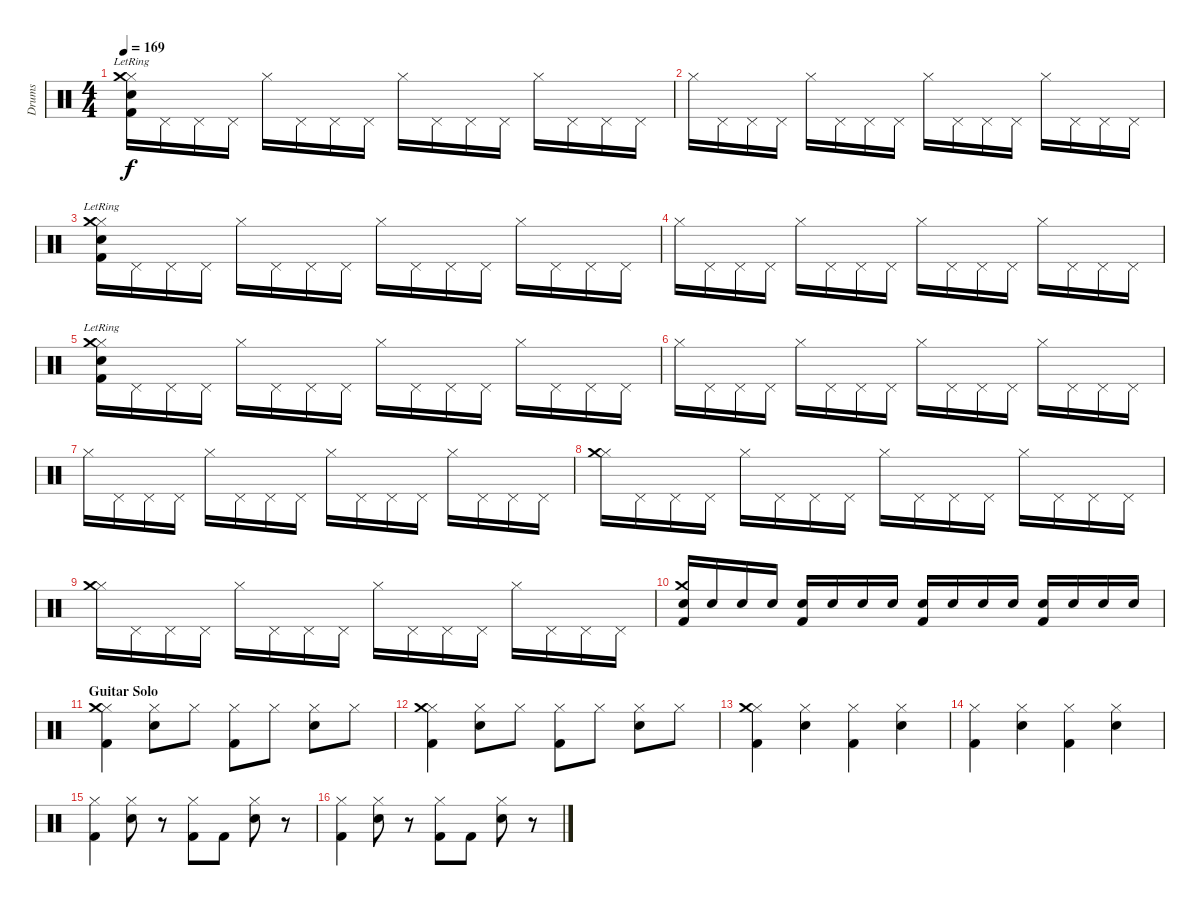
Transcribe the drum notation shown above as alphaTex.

\track ("Drums" "Drums") {instrument percussion}
\staff {score}
\articulation defaults
\ts (4 4)
\tempo 169
\clef neutral
\ks c
("Hi-Hat (closed)" "Kick (hit) 2"{lr} "Crash medium (hit)"{lr} "Snare (hit) 2"{lr}).16{dy f} "Pedal Hi-Hat (hit)".16 "Pedal Hi-Hat (hit)".16 "Pedal Hi-Hat (hit)".16 "Hi-Hat (closed)".16 "Pedal Hi-Hat (hit)".16 "Pedal Hi-Hat (hit)".16 "Pedal Hi-Hat (hit)".16 "Hi-Hat (closed)".16 "Pedal Hi-Hat (hit)".16 "Pedal Hi-Hat (hit)".16 "Pedal Hi-Hat (hit)".16 "Hi-Hat (closed)".16 "Pedal Hi-Hat (hit)".16 "Pedal Hi-Hat (hit)".16 "Pedal Hi-Hat (hit)".16 |
"Hi-Hat (closed)".16 "Pedal Hi-Hat (hit)".16 "Pedal Hi-Hat (hit)".16 "Pedal Hi-Hat (hit)".16 "Hi-Hat (closed)".16 "Pedal Hi-Hat (hit)".16 "Pedal Hi-Hat (hit)".16 "Pedal Hi-Hat (hit)".16 "Hi-Hat (closed)".16 "Pedal Hi-Hat (hit)".16 "Pedal Hi-Hat (hit)".16 "Pedal Hi-Hat (hit)".16 "Hi-Hat (closed)".16 "Pedal Hi-Hat (hit)".16 "Pedal Hi-Hat (hit)".16 "Pedal Hi-Hat (hit)".16 |
("Hi-Hat (closed)" "Kick (hit) 2"{lr} "Crash medium (hit)"{lr} "Snare (hit) 2"{lr}).16 "Pedal Hi-Hat (hit)".16 "Pedal Hi-Hat (hit)".16 "Pedal Hi-Hat (hit)".16 "Hi-Hat (closed)".16 "Pedal Hi-Hat (hit)".16 "Pedal Hi-Hat (hit)".16 "Pedal Hi-Hat (hit)".16 "Hi-Hat (closed)".16 "Pedal Hi-Hat (hit)".16 "Pedal Hi-Hat (hit)".16 "Pedal Hi-Hat (hit)".16 "Hi-Hat (closed)".16 "Pedal Hi-Hat (hit)".16 "Pedal Hi-Hat (hit)".16 "Pedal Hi-Hat (hit)".16 |
"Hi-Hat (closed)".16 "Pedal Hi-Hat (hit)".16 "Pedal Hi-Hat (hit)".16 "Pedal Hi-Hat (hit)".16 "Hi-Hat (closed)".16 "Pedal Hi-Hat (hit)".16 "Pedal Hi-Hat (hit)".16 "Pedal Hi-Hat (hit)".16 "Hi-Hat (closed)".16 "Pedal Hi-Hat (hit)".16 "Pedal Hi-Hat (hit)".16 "Pedal Hi-Hat (hit)".16 "Hi-Hat (closed)".16 "Pedal Hi-Hat (hit)".16 "Pedal Hi-Hat (hit)".16 "Pedal Hi-Hat (hit)".16 |
("Hi-Hat (closed)" "Kick (hit) 2"{lr} "Crash medium (hit)"{lr} "Snare (hit) 2"{lr}).16 "Pedal Hi-Hat (hit)".16 "Pedal Hi-Hat (hit)".16 "Pedal Hi-Hat (hit)".16 "Hi-Hat (closed)".16 "Pedal Hi-Hat (hit)".16 "Pedal Hi-Hat (hit)".16 "Pedal Hi-Hat (hit)".16 "Hi-Hat (closed)".16 "Pedal Hi-Hat (hit)".16 "Pedal Hi-Hat (hit)".16 "Pedal Hi-Hat (hit)".16 "Hi-Hat (closed)".16 "Pedal Hi-Hat (hit)".16 "Pedal Hi-Hat (hit)".16 "Pedal Hi-Hat (hit)".16 |
"Hi-Hat (closed)".16 "Pedal Hi-Hat (hit)".16 "Pedal Hi-Hat (hit)".16 "Pedal Hi-Hat (hit)".16 "Hi-Hat (closed)".16 "Pedal Hi-Hat (hit)".16 "Pedal Hi-Hat (hit)".16 "Pedal Hi-Hat (hit)".16 "Hi-Hat (closed)".16 "Pedal Hi-Hat (hit)".16 "Pedal Hi-Hat (hit)".16 "Pedal Hi-Hat (hit)".16 "Hi-Hat (closed)".16 "Pedal Hi-Hat (hit)".16 "Pedal Hi-Hat (hit)".16 "Pedal Hi-Hat (hit)".16 |
"Hi-Hat (closed)".16 "Pedal Hi-Hat (hit)".16 "Pedal Hi-Hat (hit)".16 "Pedal Hi-Hat (hit)".16 "Hi-Hat (closed)".16 "Pedal Hi-Hat (hit)".16 "Pedal Hi-Hat (hit)".16 "Pedal Hi-Hat (hit)".16 "Hi-Hat (closed)".16 "Pedal Hi-Hat (hit)".16 "Pedal Hi-Hat (hit)".16 "Pedal Hi-Hat (hit)".16 "Hi-Hat (closed)".16 "Pedal Hi-Hat (hit)".16 "Pedal Hi-Hat (hit)".16 "Pedal Hi-Hat (hit)".16 |
("Hi-Hat (closed)" "Crash medium (hit)").16{volume 14} "Pedal Hi-Hat (hit)".16 "Pedal Hi-Hat (hit)".16 "Pedal Hi-Hat (hit)".16 "Hi-Hat (closed)".16 "Pedal Hi-Hat (hit)".16 "Pedal Hi-Hat (hit)".16 "Pedal Hi-Hat (hit)".16 "Hi-Hat (closed)".16 "Pedal Hi-Hat (hit)".16 "Pedal Hi-Hat (hit)".16 "Pedal Hi-Hat (hit)".16 "Hi-Hat (closed)".16 "Pedal Hi-Hat (hit)".16 "Pedal Hi-Hat (hit)".16 "Pedal Hi-Hat (hit)".16 |
("Hi-Hat (closed)" "Crash medium (hit)").16 "Pedal Hi-Hat (hit)".16 "Pedal Hi-Hat (hit)".16 "Pedal Hi-Hat (hit)".16 "Hi-Hat (closed)".16 "Pedal Hi-Hat (hit)".16 "Pedal Hi-Hat (hit)".16 "Pedal Hi-Hat (hit)".16 "Hi-Hat (closed)".16 "Pedal Hi-Hat (hit)".16 "Pedal Hi-Hat (hit)".16 "Pedal Hi-Hat (hit)".16 "Hi-Hat (closed)".16 "Pedal Hi-Hat (hit)".16 "Pedal Hi-Hat (hit)".16 "Pedal Hi-Hat (hit)".16 |
("Kick (hit) 2" "Snare (hit) 2" "Crash medium (hit)").16 "Snare (hit) 2".16 "Snare (hit) 2".16 "Snare (hit) 2".16 ("Kick (hit) 2" "Snare (hit) 2").16 "Snare (hit) 2".16 "Snare (hit) 2".16 "Snare (hit) 2".16 ("Kick (hit) 2" "Snare (hit) 2").16 "Snare (hit) 2".16 "Snare (hit) 2".16 "Snare (hit) 2".16 ("Kick (hit) 2" "Snare (hit) 2").16 "Snare (hit) 2".16 "Snare (hit) 2".16 "Snare (hit) 2".16 |
\section ("" "Guitar Solo")
("Hi-Hat (closed)" "Kick (hit) 2" "Crash medium (hit)").4 ("Hi-Hat (closed)" "Snare (hit) 2").8 "Hi-Hat (closed)".8 ("Hi-Hat (closed)" "Kick (hit) 2").8 "Hi-Hat (closed)".8 ("Hi-Hat (closed)" "Snare (hit) 2").8 "Hi-Hat (closed)".8 |
("Hi-Hat (closed)" "Kick (hit) 2" "Crash medium (hit)").4 ("Hi-Hat (closed)" "Snare (hit) 2").8 "Hi-Hat (closed)".8 ("Hi-Hat (closed)" "Kick (hit) 2").8 "Hi-Hat (closed)".8 ("Hi-Hat (closed)" "Snare (hit) 2").8 "Hi-Hat (closed)".8 |
("Hi-Hat (closed)" "Kick (hit) 2" "Crash medium (hit)").4 ("Hi-Hat (closed)" "Snare (hit) 2").4 ("Hi-Hat (closed)" "Kick (hit) 2").4 ("Hi-Hat (closed)" "Snare (hit) 2").4 |
("Hi-Hat (closed)" "Kick (hit) 2").4 ("Hi-Hat (closed)" "Snare (hit) 2").4 ("Hi-Hat (closed)" "Kick (hit) 2").4 ("Hi-Hat (closed)" "Snare (hit) 2").4 |
("Hi-Hat (closed)" "Kick (hit) 2").4 ("Hi-Hat (closed)" "Snare (hit) 2").8 r.8 ("Hi-Hat (closed)" "Kick (hit) 2").8 "Kick (hit) 2".8 ("Hi-Hat (closed)" "Snare (hit) 2").8 r.8 |
("Hi-Hat (closed)" "Kick (hit) 2").4 ("Hi-Hat (closed)" "Snare (hit) 2").8 r.8 ("Hi-Hat (closed)" "Kick (hit) 2").8 "Kick (hit) 2".8 ("Hi-Hat (closed)" "Snare (hit) 2").8 r.8
